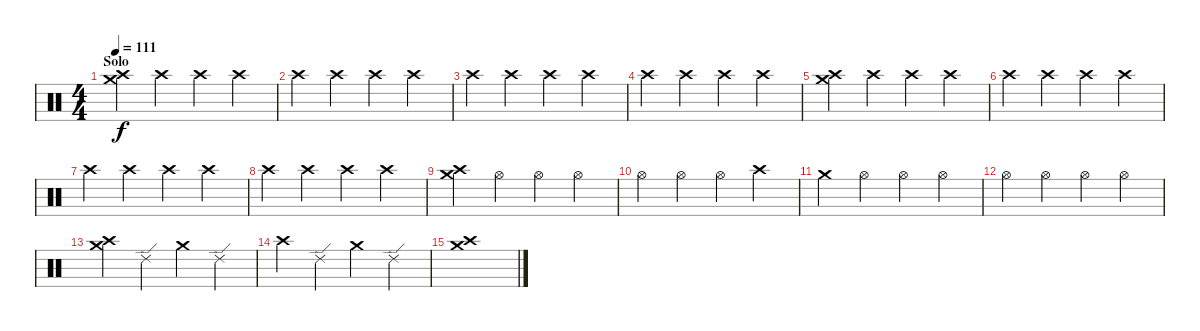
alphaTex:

\track "" {instrument percussion}
\staff {score}
\articulation defaults
\ts (4 4)
\section ("" "Solo")
\tempo 111
\clef neutral
\ks c
("Crash medium (hit)" "Crash high (hit)").4{dy f} "Crash high (hit)".4 "Crash high (hit)".4 "Crash high (hit)".4 |
"Crash high (hit)".4 "Crash high (hit)".4 "Crash high (hit)".4 "Crash high (hit)".4 |
"Crash high (hit)".4 "Crash high (hit)".4 "Crash high (hit)".4 "Crash high (hit)".4 |
"Crash high (hit)".4 "Crash high (hit)".4 "Crash high (hit)".4 "Crash high (hit)".4 |
("Crash medium (hit)" "Crash high (hit)").4 "Crash high (hit)".4 "Crash high (hit)".4 "Crash high (hit)".4 |
"Crash high (hit)".4 "Crash high (hit)".4 "Crash high (hit)".4 "Crash high (hit)".4 |
"Crash high (hit)".4 "Crash high (hit)".4 "Crash high (hit)".4 "Crash high (hit)".4 |
"Crash high (hit)".4 "Crash high (hit)".4 "Crash high (hit)".4 "Crash high (hit)".4 |
("Crash medium (hit)" "Crash high (hit)").4 "Hi-Hat (open)".4 "Hi-Hat (open)".4 "Hi-Hat (open)".4 |
"Hi-Hat (open)".4 "Hi-Hat (open)".4 "Hi-Hat (open)".4 "Crash high (hit)".4 |
"Crash medium (hit)".4 "Hi-Hat (open)".4 "Hi-Hat (open)".4 "Hi-Hat (open)".4 |
"Hi-Hat (open)".4 "Hi-Hat (open)".4 "Hi-Hat (open)".4 "Hi-Hat (open)".4 |
("Crash medium (hit)" "Crash high (hit)").4 "Ride (edge) 2".4 "Crash medium (hit)".4 "Ride (edge) 2".4 |
"Crash high (hit)".4 "Ride (edge) 2".4 "Crash medium (hit)".4 "Ride (edge) 2".4 |
("Crash high (hit)" "Crash medium (hit)").1
